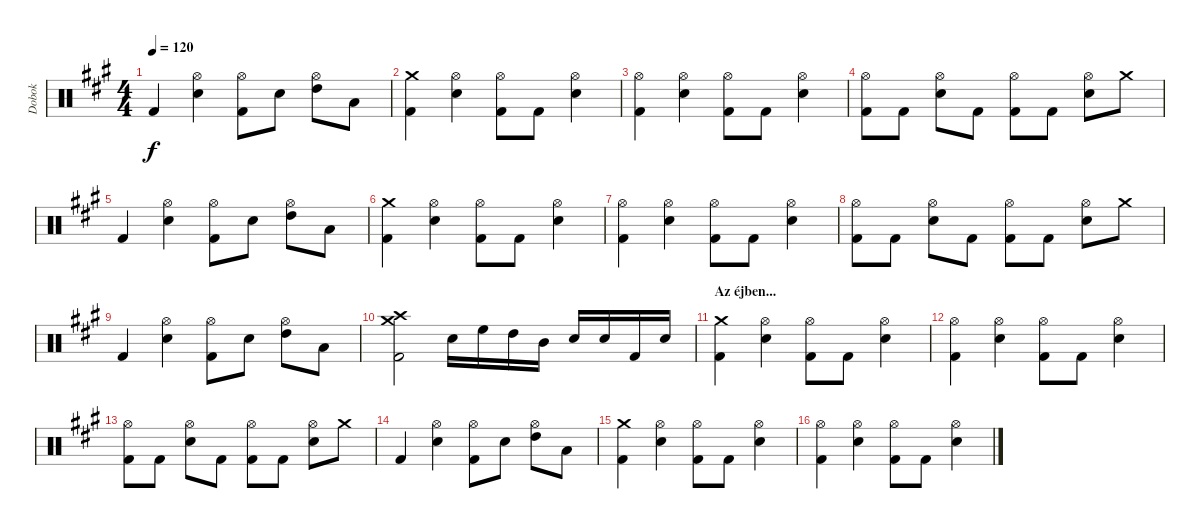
\track ("Dobok" "Dobok") {instrument percussion}
\staff {score}
\articulation defaults
\ts (4 4)
\tempo 120
\clef neutral
\ks a "Kick (hit) 2".4{dy f}
("Hi-Hat (open)" "Snare (hit) 2").4 ("Hi-Hat (open)" "Kick (hit) 2").8 "Snare (hit) 2".8 ("Hi-Hat (open)" "High Tom (hit)").8 "Low Tom (hit)".8 |
("Crash medium (hit)" "Kick (hit) 2").4 ("Hi-Hat (open)" "Snare (hit) 2").4 ("Hi-Hat (open)" "Kick (hit) 2").8 "Kick (hit) 2".8 ("Hi-Hat (open)" "Snare (hit) 2").4 |
("Hi-Hat (open)" "Kick (hit) 2").4 ("Hi-Hat (open)" "Snare (hit) 2").4 ("Hi-Hat (open)" "Kick (hit) 2").8 "Kick (hit) 2".8 ("Hi-Hat (open)" "Snare (hit) 2").4 |
("Hi-Hat (open)" "Kick (hit) 2").8 "Kick (hit) 2".8 ("Hi-Hat (open)" "Snare (hit) 2").8 "Kick (hit) 2".8 ("Hi-Hat (open)" "Kick (hit) 2").8 "Kick (hit) 2".8 ("Hi-Hat (open)" "Snare (hit) 2").8 "Crash medium (hit)".8 |
"Kick (hit) 2".4 ("Hi-Hat (open)" "Snare (hit) 2").4 ("Hi-Hat (open)" "Kick (hit) 2").8 "Snare (hit) 2".8 ("Hi-Hat (open)" "High Tom (hit)").8 "Low Tom (hit)".8 |
("Crash medium (hit)" "Kick (hit) 2").4 ("Hi-Hat (open)" "Snare (hit) 2").4 ("Hi-Hat (open)" "Kick (hit) 2").8 "Kick (hit) 2".8 ("Hi-Hat (open)" "Snare (hit) 2").4 |
("Hi-Hat (open)" "Kick (hit) 2").4 ("Hi-Hat (open)" "Snare (hit) 2").4 ("Hi-Hat (open)" "Kick (hit) 2").8 "Kick (hit) 2".8 ("Hi-Hat (open)" "Snare (hit) 2").4 |
("Hi-Hat (open)" "Kick (hit) 2").8 "Kick (hit) 2".8 ("Hi-Hat (open)" "Snare (hit) 2").8 "Kick (hit) 2".8 ("Hi-Hat (open)" "Kick (hit) 2").8 "Kick (hit) 2".8 ("Hi-Hat (open)" "Snare (hit) 2").8 "Crash medium (hit)".8 |
"Kick (hit) 2".4 ("Hi-Hat (open)" "Snare (hit) 2").4 ("Hi-Hat (open)" "Kick (hit) 2").8 "Snare (hit) 2".8 ("Hi-Hat (open)" "High Tom (hit)").8 "Low Tom (hit)".8 |
("Crash medium (hit)" "Crash high (hit)" "Kick (hit) 2").2 "Snare (hit) 2".16 "High Floor Tom (hit)".16 "High Tom (hit)".16 "Mid Tom (hit)".16 "Snare (hit) 2".16 "Snare (hit) 2".16 "Kick (hit) 2".16 "Snare (hit) 2".16 |
\section ("" "Az éjben...")
("Crash medium (hit)" "Kick (hit) 2").4 ("Hi-Hat (open)" "Snare (hit) 2").4 ("Hi-Hat (open)" "Kick (hit) 2").8 "Kick (hit) 2".8 ("Hi-Hat (open)" "Snare (hit) 2").4 |
("Hi-Hat (open)" "Kick (hit) 2").4 ("Hi-Hat (open)" "Snare (hit) 2").4 ("Hi-Hat (open)" "Kick (hit) 2").8 "Kick (hit) 2".8 ("Hi-Hat (open)" "Snare (hit) 2").4 |
("Hi-Hat (open)" "Kick (hit) 2").8 "Kick (hit) 2".8 ("Hi-Hat (open)" "Snare (hit) 2").8 "Kick (hit) 2".8 ("Hi-Hat (open)" "Kick (hit) 2").8 "Kick (hit) 2".8 ("Hi-Hat (open)" "Snare (hit) 2").8 "Crash medium (hit)".8 |
"Kick (hit) 2".4 ("Hi-Hat (open)" "Snare (hit) 2").4 ("Hi-Hat (open)" "Kick (hit) 2").8 "Snare (hit) 2".8 ("Hi-Hat (open)" "High Tom (hit)").8 "Low Tom (hit)".8 |
("Crash medium (hit)" "Kick (hit) 2").4 ("Hi-Hat (open)" "Snare (hit) 2").4 ("Hi-Hat (open)" "Kick (hit) 2").8 "Kick (hit) 2".8 ("Hi-Hat (open)" "Snare (hit) 2").4 |
("Hi-Hat (open)" "Kick (hit) 2").4 ("Hi-Hat (open)" "Snare (hit) 2").4 ("Hi-Hat (open)" "Kick (hit) 2").8 "Kick (hit) 2".8 ("Hi-Hat (open)" "Snare (hit) 2").4
